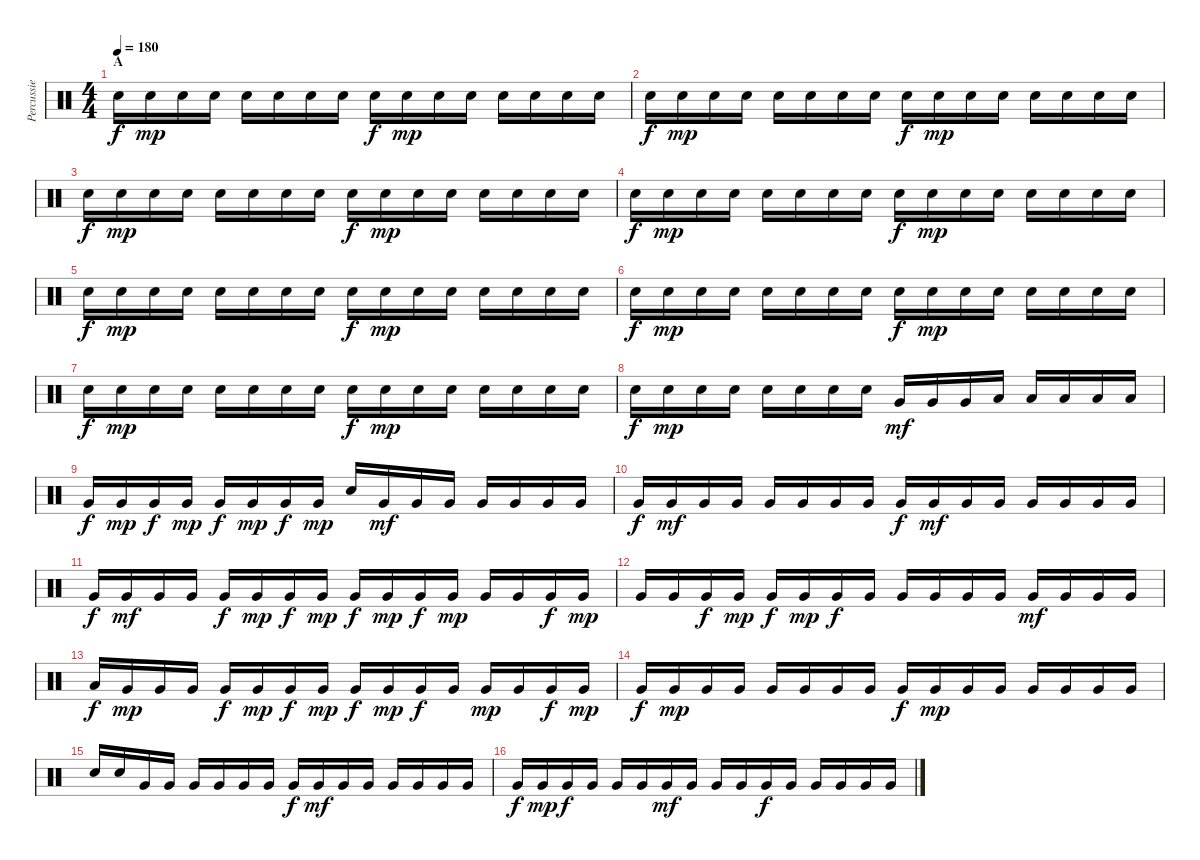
\track ("Percussie" "Percussie") {instrument percussion}
\staff {score}
\articulation defaults
\ts (4 4)
\section ("" "A")
\tempo 180
\tempo 160
\tempo 180
\clef neutral
\ks c "Electric Snare (hit)".16{dy f} "Electric Snare (hit)".16{dy mp} "Electric Snare (hit)".16 "Electric Snare (hit)".16 "Electric Snare (hit)".16 "Electric Snare (hit)".16 "Electric Snare (hit)".16 "Electric Snare (hit)".16 "Electric Snare (hit)".16{dy f} "Electric Snare (hit)".16{dy mp} "Electric Snare (hit)".16 "Electric Snare (hit)".16 "Electric Snare (hit)".16 "Electric Snare (hit)".16 "Electric Snare (hit)".16 "Electric Snare (hit)".16
|
"Electric Snare (hit)".16{dy f} "Electric Snare (hit)".16{dy mp} "Electric Snare (hit)".16 "Electric Snare (hit)".16 "Electric Snare (hit)".16 "Electric Snare (hit)".16 "Electric Snare (hit)".16 "Electric Snare (hit)".16 "Electric Snare (hit)".16{dy f} "Electric Snare (hit)".16{dy mp} "Electric Snare (hit)".16 "Electric Snare (hit)".16 "Electric Snare (hit)".16 "Electric Snare (hit)".16 "Electric Snare (hit)".16 "Electric Snare (hit)".16 |
"Electric Snare (hit)".16{dy f} "Electric Snare (hit)".16{dy mp} "Electric Snare (hit)".16 "Electric Snare (hit)".16 "Electric Snare (hit)".16 "Electric Snare (hit)".16 "Electric Snare (hit)".16 "Electric Snare (hit)".16 "Electric Snare (hit)".16{dy f} "Electric Snare (hit)".16{dy mp} "Electric Snare (hit)".16 "Electric Snare (hit)".16 "Electric Snare (hit)".16 "Electric Snare (hit)".16 "Electric Snare (hit)".16 "Electric Snare (hit)".16 |
"Electric Snare (hit)".16{dy f} "Electric Snare (hit)".16{dy mp} "Electric Snare (hit)".16 "Electric Snare (hit)".16 "Electric Snare (hit)".16 "Electric Snare (hit)".16 "Electric Snare (hit)".16 "Electric Snare (hit)".16 "Electric Snare (hit)".16{dy f} "Electric Snare (hit)".16{dy mp} "Electric Snare (hit)".16 "Electric Snare (hit)".16 "Electric Snare (hit)".16 "Electric Snare (hit)".16 "Electric Snare (hit)".16 "Electric Snare (hit)".16 |
"Electric Snare (hit)".16{dy f} "Electric Snare (hit)".16{dy mp} "Electric Snare (hit)".16 "Electric Snare (hit)".16 "Electric Snare (hit)".16 "Electric Snare (hit)".16 "Electric Snare (hit)".16 "Electric Snare (hit)".16 "Electric Snare (hit)".16{dy f} "Electric Snare (hit)".16{dy mp} "Electric Snare (hit)".16 "Electric Snare (hit)".16 "Electric Snare (hit)".16 "Electric Snare (hit)".16 "Electric Snare (hit)".16 "Electric Snare (hit)".16 |
"Electric Snare (hit)".16{dy f} "Electric Snare (hit)".16{dy mp} "Electric Snare (hit)".16 "Electric Snare (hit)".16 "Electric Snare (hit)".16 "Electric Snare (hit)".16 "Electric Snare (hit)".16 "Electric Snare (hit)".16 "Electric Snare (hit)".16{dy f} "Electric Snare (hit)".16{dy mp} "Electric Snare (hit)".16 "Electric Snare (hit)".16 "Electric Snare (hit)".16 "Electric Snare (hit)".16 "Electric Snare (hit)".16 "Electric Snare (hit)".16 |
"Electric Snare (hit)".16{dy f} "Electric Snare (hit)".16{dy mp} "Electric Snare (hit)".16 "Electric Snare (hit)".16 "Electric Snare (hit)".16 "Electric Snare (hit)".16 "Electric Snare (hit)".16 "Electric Snare (hit)".16 "Electric Snare (hit)".16{dy f} "Electric Snare (hit)".16{dy mp} "Electric Snare (hit)".16 "Electric Snare (hit)".16 "Electric Snare (hit)".16 "Electric Snare (hit)".16 "Electric Snare (hit)".16 "Electric Snare (hit)".16 |
"Electric Snare (hit)".16{dy f} "Electric Snare (hit)".16{dy mp} "Electric Snare (hit)".16 "Electric Snare (hit)".16 "Electric Snare (hit)".16 "Electric Snare (hit)".16 "Electric Snare (hit)".16 "Electric Snare (hit)".16 "Very Low Tom (hit)".16{dy mf} "Very Low Tom (hit)".16 "Very Low Tom (hit)".16 "Low Floor Tom (hit)".16 "Low Floor Tom (hit)".16 "Low Floor Tom (hit)".16 "Low Floor Tom (hit)".16 "Low Floor Tom (hit)".16 |
"Very Low Tom (hit)".16{dy f} "Very Low Tom (hit)".16{dy mp} "Very Low Tom (hit)".16{dy f} "Very Low Tom (hit)".16{dy mp} "Very Low Tom (hit)".16{dy f} "Very Low Tom (hit)".16{dy mp} "Very Low Tom (hit)".16{dy f} "Very Low Tom (hit)".16{dy mp} "Electric Snare (hit)".16 "Very Low Tom (hit)".16{dy mf} "Very Low Tom (hit)".16 "Very Low Tom (hit)".16 "Very Low Tom (hit)".16 "Very Low Tom (hit)".16 "Very Low Tom (hit)".16 "Very Low Tom (hit)".16 |
"Very Low Tom (hit)".16{dy f} "Very Low Tom (hit)".16{dy mf} "Very Low Tom (hit)".16 "Very Low Tom (hit)".16 "Very Low Tom (hit)".16 "Very Low Tom (hit)".16 "Very Low Tom (hit)".16 "Very Low Tom (hit)".16 "Very Low Tom (hit)".16{dy f} "Very Low Tom (hit)".16{dy mf} "Very Low Tom (hit)".16 "Very Low Tom (hit)".16 "Very Low Tom (hit)".16 "Very Low Tom (hit)".16 "Very Low Tom (hit)".16 "Very Low Tom (hit)".16 |
"Very Low Tom (hit)".16{dy f} "Very Low Tom (hit)".16{dy mf} "Very Low Tom (hit)".16 "Very Low Tom (hit)".16 "Very Low Tom (hit)".16{dy f} "Very Low Tom (hit)".16{dy mp} "Very Low Tom (hit)".16{dy f} "Very Low Tom (hit)".16{dy mp} "Very Low Tom (hit)".16{dy f} "Very Low Tom (hit)".16{dy mp} "Very Low Tom (hit)".16{dy f} "Very Low Tom (hit)".16{dy mp} "Very Low Tom (hit)".16 "Very Low Tom (hit)".16 "Very Low Tom (hit)".16{dy f} "Very Low Tom (hit)".16{dy mp} |
"Very Low Tom (hit)".16 "Very Low Tom (hit)".16 "Very Low Tom (hit)".16{dy f} "Very Low Tom (hit)".16{dy mp} "Very Low Tom (hit)".16{dy f} "Very Low Tom (hit)".16{dy mp} "Very Low Tom (hit)".16{dy f} "Very Low Tom (hit)".16 "Very Low Tom (hit)".16 "Very Low Tom (hit)".16 "Very Low Tom (hit)".16 "Very Low Tom (hit)".16 "Very Low Tom (hit)".16{dy mf} "Very Low Tom (hit)".16 "Very Low Tom (hit)".16 "Very Low Tom (hit)".16 |
"Low Floor Tom (hit)".16{dy f} "Very Low Tom (hit)".16{dy mp} "Very Low Tom (hit)".16 "Very Low Tom (hit)".16 "Very Low Tom (hit)".16{dy f} "Very Low Tom (hit)".16{dy mp} "Very Low Tom (hit)".16{dy f} "Very Low Tom (hit)".16{dy mp} "Very Low Tom (hit)".16{dy f} "Very Low Tom (hit)".16{dy mp} "Very Low Tom (hit)".16{dy f} "Very Low Tom (hit)".16 "Very Low Tom (hit)".16{dy mp} "Very Low Tom (hit)".16 "Very Low Tom (hit)".16{dy f} "Very Low Tom (hit)".16{dy mp} |
"Very Low Tom (hit)".16{dy f} "Very Low Tom (hit)".16{dy mp} "Very Low Tom (hit)".16 "Very Low Tom (hit)".16 "Very Low Tom (hit)".16 "Very Low Tom (hit)".16 "Very Low Tom (hit)".16 "Very Low Tom (hit)".16 "Very Low Tom (hit)".16{dy f} "Very Low Tom (hit)".16{dy mp} "Very Low Tom (hit)".16 "Very Low Tom (hit)".16 "Very Low Tom (hit)".16 "Very Low Tom (hit)".16 "Very Low Tom (hit)".16 "Very Low Tom (hit)".16 |
"Electric Snare (hit)".16 "Electric Snare (hit)".16 "Very Low Tom (hit)".16 "Very Low Tom (hit)".16 "Very Low Tom (hit)".16 "Very Low Tom (hit)".16 "Very Low Tom (hit)".16 "Very Low Tom (hit)".16 "Very Low Tom (hit)".16{dy f} "Very Low Tom (hit)".16{dy mf} "Very Low Tom (hit)".16 "Very Low Tom (hit)".16 "Very Low Tom (hit)".16 "Very Low Tom (hit)".16 "Very Low Tom (hit)".16 "Very Low Tom (hit)".16 |
"Very Low Tom (hit)".16{dy f} "Very Low Tom (hit)".16{dy mp} "Very Low Tom (hit)".16{dy f} "Very Low Tom (hit)".16 "Very Low Tom (hit)".16 "Very Low Tom (hit)".16 "Very Low Tom (hit)".16{dy mf} "Very Low Tom (hit)".16 "Very Low Tom (hit)".16 "Very Low Tom (hit)".16 "Very Low Tom (hit)".16{dy f} "Very Low Tom (hit)".16 "Very Low Tom (hit)".16 "Very Low Tom (hit)".16 "Very Low Tom (hit)".16 "Very Low Tom (hit)".16
